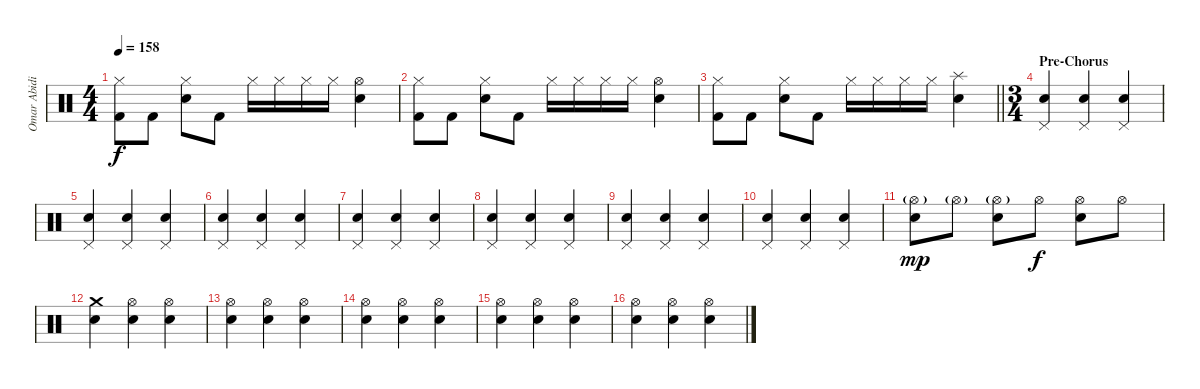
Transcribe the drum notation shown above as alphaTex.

\track ("Omar Abidi" "Omar Abidi") {instrument percussion}
\staff {score}
\articulation defaults
\ts (4 4)
\tempo 158
\clef neutral
\ks c
("Hi-Hat (closed)" "Kick (hit) 2").8{dy f} "Kick (hit) 2".8 ("Hi-Hat (closed)" "Snare (hit) 2").8 "Kick (hit) 2".8 "Hi-Hat (closed)".16 "Hi-Hat (closed)".16 "Hi-Hat (closed)".16 "Hi-Hat (closed)".16 ("Hi-Hat (open)" "Snare (hit) 2").4 |
("Hi-Hat (closed)" "Kick (hit) 2").8 "Kick (hit) 2".8 ("Hi-Hat (closed)" "Snare (hit) 2").8 "Kick (hit) 2".8 "Hi-Hat (closed)".16 "Hi-Hat (closed)".16 "Hi-Hat (closed)".16 "Hi-Hat (closed)".16 ("Hi-Hat (open)" "Snare (hit) 2").4 |
\barLineRight lightlight
("Hi-Hat (closed)" "Kick (hit) 2").8 "Kick (hit) 2".8 ("Hi-Hat (closed)" "Snare (hit) 2").8 "Kick (hit) 2".8 "Hi-Hat (closed)".16 "Hi-Hat (closed)".16 "Hi-Hat (closed)".16 "Hi-Hat (closed)".16 ("Splash (hit)" "Snare (hit) 2").4 |
\ts (3 4)
\section ("" "Pre-Chorus")
("Pedal Hi-Hat (hit)" "Snare (hit) 2").4{volume 6} ("Pedal Hi-Hat (hit)" "Snare (hit) 2").4 ("Pedal Hi-Hat (hit)" "Snare (hit) 2").4 |
("Pedal Hi-Hat (hit)" "Snare (hit) 2").4 ("Pedal Hi-Hat (hit)" "Snare (hit) 2").4 ("Pedal Hi-Hat (hit)" "Snare (hit) 2").4 |
("Pedal Hi-Hat (hit)" "Snare (hit) 2").4 ("Pedal Hi-Hat (hit)" "Snare (hit) 2").4 ("Pedal Hi-Hat (hit)" "Snare (hit) 2").4 |
("Pedal Hi-Hat (hit)" "Snare (hit) 2").4 ("Pedal Hi-Hat (hit)" "Snare (hit) 2").4 ("Pedal Hi-Hat (hit)" "Snare (hit) 2").4 |
("Pedal Hi-Hat (hit)" "Snare (hit) 2").4 ("Pedal Hi-Hat (hit)" "Snare (hit) 2").4 ("Pedal Hi-Hat (hit)" "Snare (hit) 2").4 |
("Pedal Hi-Hat (hit)" "Snare (hit) 2").4 ("Pedal Hi-Hat (hit)" "Snare (hit) 2").4 ("Pedal Hi-Hat (hit)" "Snare (hit) 2").4 |
("Pedal Hi-Hat (hit)" "Snare (hit) 2").4 ("Pedal Hi-Hat (hit)" "Snare (hit) 2").4 ("Pedal Hi-Hat (hit)" "Snare (hit) 2").4 |
("Hi-Hat (open)"{g} "Snare (hit) 2").8{dy mp} "Hi-Hat (open)"{g}.8 ("Hi-Hat (open)"{g} "Snare (hit) 2").8 "Hi-Hat (open)".8{dy f} ("Hi-Hat (open)" "Snare (hit) 2").8 "Hi-Hat (open)".8 |
("Crash medium (hit)" "Snare (hit) 2").4 ("Hi-Hat (open)" "Snare (hit) 2").4 ("Hi-Hat (open)" "Snare (hit) 2").4 |
("Hi-Hat (open)" "Snare (hit) 2").4 ("Hi-Hat (open)" "Snare (hit) 2").4 ("Hi-Hat (open)" "Snare (hit) 2").4 |
("Hi-Hat (open)" "Snare (hit) 2").4 ("Hi-Hat (open)" "Snare (hit) 2").4 ("Hi-Hat (open)" "Snare (hit) 2").4 |
("Hi-Hat (open)" "Snare (hit) 2").4 ("Hi-Hat (open)" "Snare (hit) 2").4 ("Hi-Hat (open)" "Snare (hit) 2").4 |
("Hi-Hat (open)" "Snare (hit) 2").4 ("Hi-Hat (open)" "Snare (hit) 2").4 ("Hi-Hat (open)" "Snare (hit) 2").4
